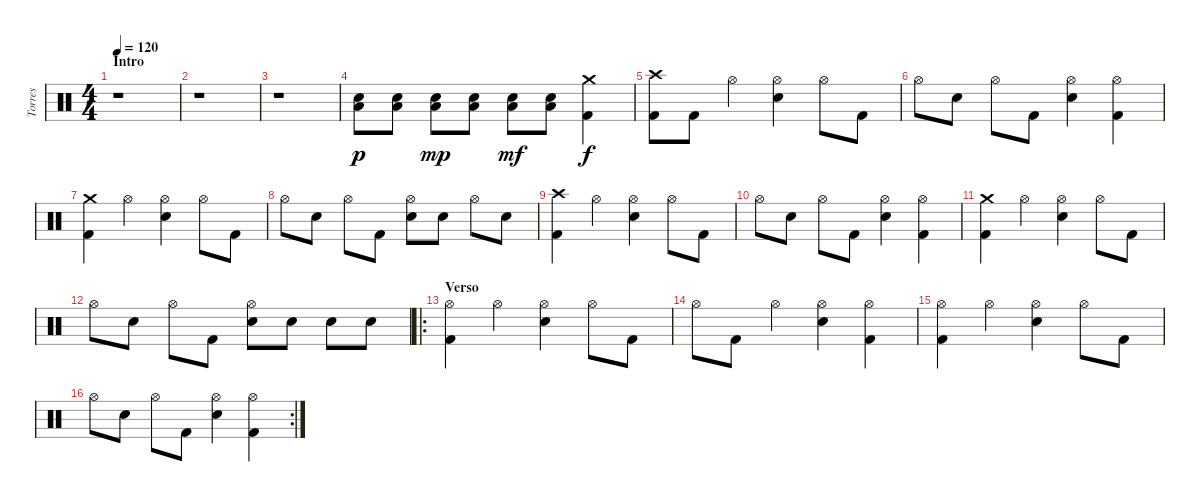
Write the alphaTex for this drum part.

\track ("Torres" "Torres") {instrument percussion}
\staff {score}
\articulation defaults
\ts (4 4)
\section ("" "Intro")
\tempo 120
\clef neutral
\ks c
r.1{dy p} |
r.1 |
r.1 |
("Low Floor Tom (hit)" "Electric Snare (hit)").8 ("Low Floor Tom (hit)" "Electric Snare (hit)").8 ("Low Floor Tom (hit)" "Electric Snare (hit)").8{dy mp} ("Low Floor Tom (hit)" "Electric Snare (hit)").8 ("Low Floor Tom (hit)" "Electric Snare (hit)").8{dy mf} ("Low Floor Tom (hit)" "Electric Snare (hit)").8 ("Crash medium (hit)" "Kick (hit) 2").4{dy f} |
("Crash high (hit)" "Kick (hit) 2").8 "Kick (hit) 2".8 "Hi-Hat (open)".4 ("Hi-Hat (open)" "Electric Snare (hit)").4 "Hi-Hat (open)".8 "Kick (hit) 2".8 |
"Hi-Hat (open)".8 "Electric Snare (hit)".8 "Hi-Hat (open)".8 "Kick (hit) 2".8 ("Hi-Hat (open)" "Electric Snare (hit)").4 ("Hi-Hat (open)" "Kick (hit) 2").4 |
("Crash medium (hit)" "Kick (hit) 2").4 "Hi-Hat (open)".4 ("Hi-Hat (open)" "Electric Snare (hit)").4 "Hi-Hat (open)".8 "Kick (hit) 2".8 |
"Hi-Hat (open)".8 "Electric Snare (hit)".8 "Hi-Hat (open)".8 "Kick (hit) 2".8 ("Hi-Hat (open)" "Electric Snare (hit)").8 "Electric Snare (hit)".8 "Hi-Hat (open)".8 "Electric Snare (hit)".8 |
("Crash high (hit)" "Kick (hit) 2").4 "Hi-Hat (open)".4 ("Hi-Hat (open)" "Electric Snare (hit)").4 "Hi-Hat (open)".8 "Kick (hit) 2".8 |
"Hi-Hat (open)".8 "Electric Snare (hit)".8 "Hi-Hat (open)".8 "Kick (hit) 2".8 ("Hi-Hat (open)" "Electric Snare (hit)").4 ("Hi-Hat (open)" "Kick (hit) 2").4 |
("Crash medium (hit)" "Kick (hit) 2").4 "Hi-Hat (open)".4 ("Hi-Hat (open)" "Electric Snare (hit)").4 "Hi-Hat (open)".8 "Kick (hit) 2".8 |
"Hi-Hat (open)".8 "Electric Snare (hit)".8 "Hi-Hat (open)".8 "Kick (hit) 2".8 ("Hi-Hat (open)" "Electric Snare (hit)").8 "Electric Snare (hit)".8 "Electric Snare (hit)".8 "Electric Snare (hit)".8 |
\ro
\section ("" "Verso")
("Hi-Hat (open)" "Kick (hit) 2").4 "Hi-Hat (open)".4 ("Hi-Hat (open)" "Electric Snare (hit)").4 "Hi-Hat (open)".8 "Kick (hit) 2".8 |
"Hi-Hat (open)".8 "Kick (hit) 2".8 "Hi-Hat (open)".4 ("Hi-Hat (open)" "Electric Snare (hit)").4 ("Hi-Hat (open)" "Kick (hit) 2").4 |
("Hi-Hat (open)" "Kick (hit) 2").4 "Hi-Hat (open)".4 ("Hi-Hat (open)" "Electric Snare (hit)").4 "Hi-Hat (open)".8 "Kick (hit) 2".8 |
\rc 2 "Hi-Hat (open)".8 "Electric Snare (hit)".8 "Hi-Hat (open)".8 "Kick (hit) 2".8
("Hi-Hat (open)" "Electric Snare (hit)").4 ("Hi-Hat (open)" "Kick (hit) 2").4
